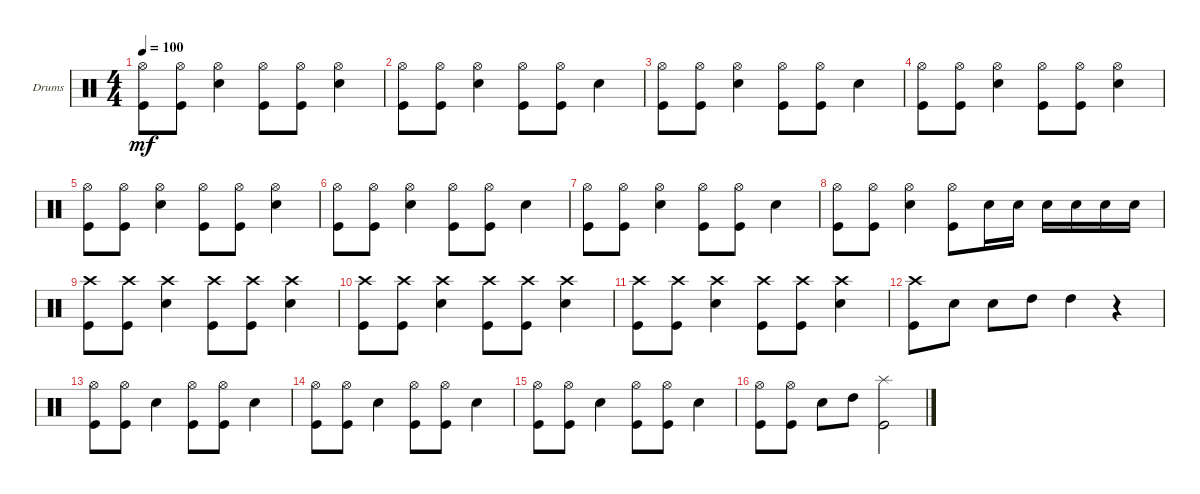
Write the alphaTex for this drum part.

\defaultSystemsLayout 4
\bracketExtendMode groupsimilarinstruments
\firstSystemTrackNameOrientation horizontal
\otherSystemsTrackNameOrientation horizontal
\track ("Drumkit" "Drums") {instrument percussion}
\staff {score}
\articulation defaults
\ts (4 4)
\tempo 100
\clef neutral
\ks c
("Kick (hit)" "Hi-Hat (open)").8{dy mf} ("Kick (hit)" "Hi-Hat (open)").8 ("Snare (hit) 2" "Hi-Hat (open)").4 ("Kick (hit)" "Hi-Hat (open)").8 ("Kick (hit)" "Hi-Hat (open)").8 ("Snare (hit) 2" "Hi-Hat (open)").4 |
("Kick (hit)" "Hi-Hat (open)").8 ("Kick (hit)" "Hi-Hat (open)").8 ("Snare (hit) 2" "Hi-Hat (open)").4 ("Kick (hit)" "Hi-Hat (open)").8 ("Kick (hit)" "Hi-Hat (open)").8 "Snare (hit) 2".4 |
("Kick (hit)" "Hi-Hat (open)").8 ("Kick (hit)" "Hi-Hat (open)").8 ("Snare (hit) 2" "Hi-Hat (open)").4 ("Kick (hit)" "Hi-Hat (open)").8 ("Kick (hit)" "Hi-Hat (open)").8 "Snare (hit) 2".4 |
("Kick (hit)" "Hi-Hat (open)").8 ("Kick (hit)" "Hi-Hat (open)").8 ("Snare (hit) 2" "Hi-Hat (open)").4 ("Kick (hit)" "Hi-Hat (open)").8 ("Kick (hit)" "Hi-Hat (open)").8 ("Snare (hit) 2" "Hi-Hat (open)").4 |
("Kick (hit)" "Hi-Hat (open)").8 ("Kick (hit)" "Hi-Hat (open)").8 ("Snare (hit) 2" "Hi-Hat (open)").4 ("Kick (hit)" "Hi-Hat (open)").8 ("Kick (hit)" "Hi-Hat (open)").8 ("Snare (hit) 2" "Hi-Hat (open)").4 |
("Kick (hit)" "Hi-Hat (open)").8 ("Kick (hit)" "Hi-Hat (open)").8 ("Snare (hit) 2" "Hi-Hat (open)").4 ("Kick (hit)" "Hi-Hat (open)").8 ("Kick (hit)" "Hi-Hat (open)").8 "Snare (hit) 2".4 |
("Kick (hit)" "Hi-Hat (open)").8 ("Kick (hit)" "Hi-Hat (open)").8 ("Snare (hit) 2" "Hi-Hat (open)").4 ("Kick (hit)" "Hi-Hat (open)").8 ("Kick (hit)" "Hi-Hat (open)").8 "Snare (hit) 2".4 |
("Kick (hit)" "Hi-Hat (open)").8 ("Kick (hit)" "Hi-Hat (open)").8 ("Snare (hit) 2" "Hi-Hat (open)").4 ("Kick (hit)" "Hi-Hat (open)").8 "Snare (hit) 2".16 "Snare (hit) 2".16 "Snare (hit) 2".16 "Snare (hit) 2".16 "Snare (hit) 2".16 "Snare (hit) 2".16 |
("Kick (hit)" "Crash high (hit)").8 ("Kick (hit)" "Crash high (hit)").8 ("Snare (hit) 2" "Crash high (hit)").4 ("Kick (hit)" "Crash high (hit)").8 ("Kick (hit)" "Crash high (hit)").8 ("Snare (hit) 2" "Crash high (hit)").4 |
("Kick (hit)" "Crash high (hit)").8 ("Kick (hit)" "Crash high (hit)").8 ("Snare (hit) 2" "Crash high (hit)").4 ("Kick (hit)" "Crash high (hit)").8 ("Kick (hit)" "Crash high (hit)").8 ("Snare (hit) 2" "Crash high (hit)").4 |
("Kick (hit)" "Crash high (hit)").8 ("Kick (hit)" "Crash high (hit)").8 ("Snare (hit) 2" "Crash high (hit)").4 ("Kick (hit)" "Crash high (hit)").8 ("Kick (hit)" "Crash high (hit)").8 ("Snare (hit) 2" "Crash high (hit)").4 |
("Crash high (hit)" "Kick (hit)").8 "Snare (hit) 2".8 "Snare (hit) 2".8 "High Tom (hit)".8 "High Tom (hit)".4 r.4 |
("Kick (hit)" "Hi-Hat (open)").8 ("Kick (hit)" "Hi-Hat (open)").8 "Snare (hit) 2".4 ("Kick (hit)" "Hi-Hat (open)").8 ("Kick (hit)" "Hi-Hat (open)").8 "Snare (hit) 2".4 |
("Kick (hit)" "Hi-Hat (open)").8 ("Kick (hit)" "Hi-Hat (open)").8 "Snare (hit) 2".4 ("Kick (hit)" "Hi-Hat (open)").8 ("Kick (hit)" "Hi-Hat (open)").8 "Snare (hit) 2".4 |
("Kick (hit)" "Hi-Hat (open)").8 ("Kick (hit)" "Hi-Hat (open)").8 "Snare (hit) 2".4 ("Kick (hit)" "Hi-Hat (open)").8 ("Kick (hit)" "Hi-Hat (open)").8 "Snare (hit) 2".4 |
("Kick (hit)" "Hi-Hat (open)").8 ("Kick (hit)" "Hi-Hat (open)").8 "Snare (hit) 2".8 "High Tom (hit)".8 ("Kick (hit)" "Splash (hit)").2
